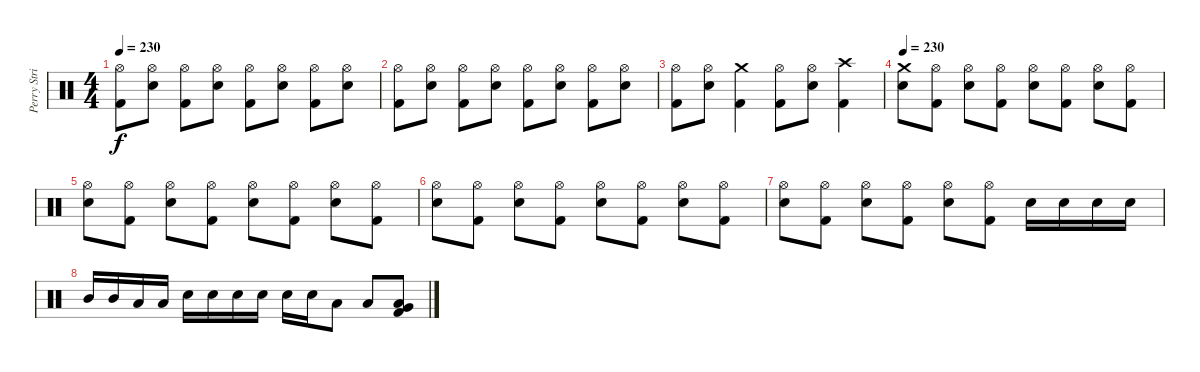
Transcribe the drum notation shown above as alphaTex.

\track ("Perry Strickland" "Perry Stri") {instrument percussion}
\staff {score}
\articulation defaults
\ts (4 4)
\tempo 230
\clef neutral
\ks c
("Hi-Hat (open)" "Kick (hit) 2").8{dy f} ("Hi-Hat (open)" "Electric Snare (hit)").8 ("Hi-Hat (open)" "Kick (hit) 2").8 ("Hi-Hat (open)" "Electric Snare (hit)").8 ("Hi-Hat (open)" "Kick (hit) 2").8 ("Hi-Hat (open)" "Electric Snare (hit)").8 ("Hi-Hat (open)" "Kick (hit) 2").8 ("Hi-Hat (open)" "Electric Snare (hit)").8 |
("Hi-Hat (open)" "Kick (hit) 2").8 ("Hi-Hat (open)" "Electric Snare (hit)").8 ("Hi-Hat (open)" "Kick (hit) 2").8 ("Hi-Hat (open)" "Electric Snare (hit)").8 ("Hi-Hat (open)" "Kick (hit) 2").8 ("Hi-Hat (open)" "Electric Snare (hit)").8 ("Hi-Hat (open)" "Kick (hit) 2").8 ("Hi-Hat (open)" "Electric Snare (hit)").8 |
("Hi-Hat (open)" "Kick (hit) 2").8 ("Hi-Hat (open)" "Electric Snare (hit)").8 ("Crash medium (hit)" "Kick (hit) 2").4 ("Hi-Hat (open)" "Kick (hit) 2").8 ("Hi-Hat (open)" "Electric Snare (hit)").8 ("Crash high (hit)" "Kick (hit) 2").4 |
\tempo 230
("Crash medium (hit)" "Electric Snare (hit)").8 ("Hi-Hat (open)" "Kick (hit) 2").8 ("Hi-Hat (open)" "Electric Snare (hit)").8 ("Hi-Hat (open)" "Kick (hit) 2").8 ("Hi-Hat (open)" "Electric Snare (hit)").8 ("Hi-Hat (open)" "Kick (hit) 2").8 ("Hi-Hat (open)" "Electric Snare (hit)").8 ("Hi-Hat (open)" "Kick (hit) 2").8 |
("Hi-Hat (open)" "Electric Snare (hit)").8 ("Hi-Hat (open)" "Kick (hit) 2").8 ("Hi-Hat (open)" "Electric Snare (hit)").8 ("Hi-Hat (open)" "Kick (hit) 2").8 ("Hi-Hat (open)" "Electric Snare (hit)").8 ("Hi-Hat (open)" "Kick (hit) 2").8 ("Hi-Hat (open)" "Electric Snare (hit)").8 ("Hi-Hat (open)" "Kick (hit) 2").8 |
("Hi-Hat (open)" "Electric Snare (hit)").8 ("Hi-Hat (open)" "Kick (hit) 2").8 ("Hi-Hat (open)" "Electric Snare (hit)").8 ("Hi-Hat (open)" "Kick (hit) 2").8 ("Hi-Hat (open)" "Electric Snare (hit)").8 ("Hi-Hat (open)" "Kick (hit) 2").8 ("Hi-Hat (open)" "Electric Snare (hit)").8 ("Hi-Hat (open)" "Kick (hit) 2").8 |
("Hi-Hat (open)" "Electric Snare (hit)").8 ("Hi-Hat (open)" "Kick (hit) 2").8 ("Hi-Hat (open)" "Electric Snare (hit)").8 ("Hi-Hat (open)" "Kick (hit) 2").8 ("Hi-Hat (open)" "Electric Snare (hit)").8 ("Hi-Hat (open)" "Kick (hit) 2").8 "Electric Snare (hit)".16 "Electric Snare (hit)".16 "Electric Snare (hit)".16 "Electric Snare (hit)".16 |
"Mid Tom (hit)".16 "Mid Tom (hit)".16 "Low Tom (hit)".16 "Low Tom (hit)".16 "Electric Snare (hit)".16 "Electric Snare (hit)".16 "Electric Snare (hit)".16 "Electric Snare (hit)".16 "Electric Snare (hit)".16 "Electric Snare (hit)".16 "Low Tom (hit)".8 "Low Floor Tom (hit)".8 ("Very Low Tom (hit)" "Low Floor Tom (hit)" "Kick (hit) 2").8
